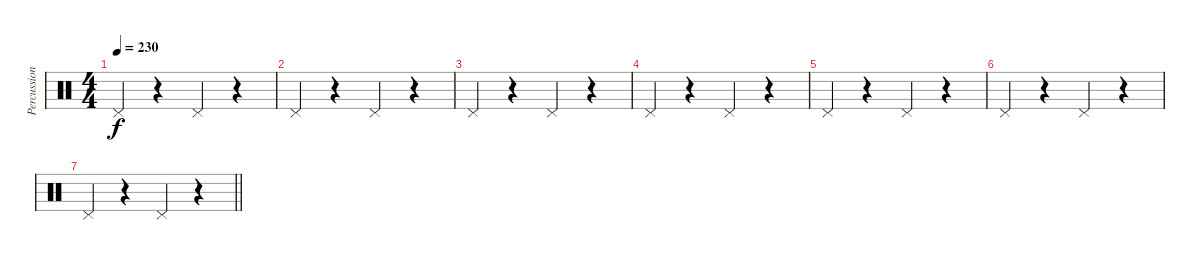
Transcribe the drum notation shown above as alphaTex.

\track ("Percussion" "Percussion") {instrument percussion}
\staff {score}
\articulation defaults
\ts (4 4)
\section ("" "")
\tempo 230
\clef neutral
\ks c "Pedal Hi-Hat (hit)".4{dy f}
r.4 "Pedal Hi-Hat (hit)".4 r.4 |
"Pedal Hi-Hat (hit)".4 r.4 "Pedal Hi-Hat (hit)".4 r.4 |
"Pedal Hi-Hat (hit)".4 r.4 "Pedal Hi-Hat (hit)".4 r.4 |
"Pedal Hi-Hat (hit)".4 r.4 "Pedal Hi-Hat (hit)".4 r.4 |
"Pedal Hi-Hat (hit)".4 r.4 "Pedal Hi-Hat (hit)".4 r.4 |
"Pedal Hi-Hat (hit)".4 r.4 "Pedal Hi-Hat (hit)".4 r.4 |
\barLineRight lightlight "Pedal Hi-Hat (hit)".4
r.4 "Pedal Hi-Hat (hit)".4 r.4
